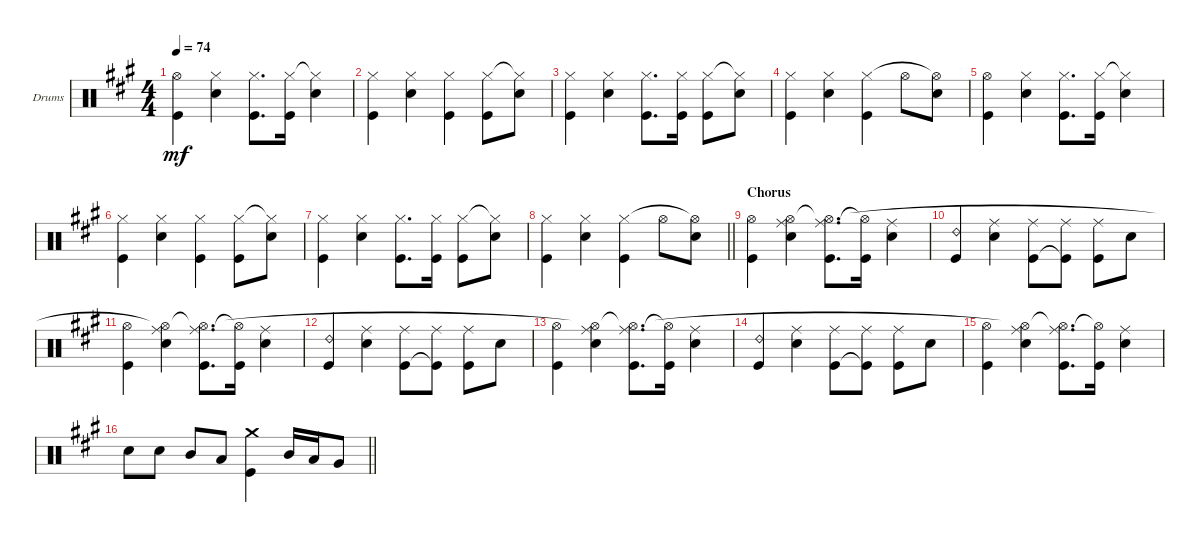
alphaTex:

\bracketExtendMode groupsimilarinstruments
\firstSystemTrackNameOrientation horizontal
\otherSystemsTrackNameOrientation horizontal
\track ("Drumkit" "Drums") {instrument percussion}
\staff {score}
\articulation defaults
\ts (4 4)
\tempo 74
\clef neutral
\scale
0.333333
\ks a
("Kick (hit)" "Hi-Hat (open)").4{dy mf} ("Snare (hit) 2" "Hi-Hat (closed)").4 ("Kick (hit)" "Hi-Hat (closed)").8{d} ("Kick (hit)" "Hi-Hat (closed)").16 ("Snare (hit) 2" "Hi-Hat (closed)"{t}).4 |
\scale
0.333333 ("Kick (hit)" "Hi-Hat (closed)").4 ("Snare (hit) 2" "Hi-Hat (closed)").4 ("Kick (hit)" "Hi-Hat (closed)").4 ("Kick (hit)" "Hi-Hat (closed)").8 ("Snare (hit) 2" "Hi-Hat (closed)"{t}).8 |
\scale
0.333333 ("Kick (hit)" "Hi-Hat (closed)").4 ("Snare (hit) 2" "Hi-Hat (closed)").4 ("Kick (hit)" "Hi-Hat (closed)").8{d} ("Kick (hit)" "Hi-Hat (closed)").16 ("Kick (hit)" "Hi-Hat (closed)").8 ("Snare (hit) 2" "Hi-Hat (closed)"{t}).8 |
\scale
0.333333 ("Kick (hit)" "Hi-Hat (closed)").4 ("Snare (hit) 2" "Hi-Hat (closed)").4 ("Kick (hit)" "Hi-Hat (closed)").4 "Hi-Hat (open)".8 ("Snare (hit) 2" "Hi-Hat (open)"{t}).8 |
\scale
0.333333 ("Kick (hit)" "Hi-Hat (open)").4 ("Snare (hit) 2" "Hi-Hat (closed)").4 ("Kick (hit)" "Hi-Hat (closed)").8{d} ("Kick (hit)" "Hi-Hat (closed)").16 ("Snare (hit) 2" "Hi-Hat (closed)"{t}).4 |
\scale
0.333333 ("Kick (hit)" "Hi-Hat (closed)").4 ("Snare (hit) 2" "Hi-Hat (closed)").4 ("Kick (hit)" "Hi-Hat (closed)").4 ("Kick (hit)" "Hi-Hat (closed)").8 ("Snare (hit) 2" "Hi-Hat (closed)"{t}).8 |
\scale
0.333333 ("Kick (hit)" "Hi-Hat (closed)").4 ("Snare (hit) 2" "Hi-Hat (closed)").4 ("Kick (hit)" "Hi-Hat (closed)").8{d} ("Kick (hit)" "Hi-Hat (closed)").16 ("Kick (hit)" "Hi-Hat (closed)").8 ("Snare (hit) 2" "Hi-Hat (closed)"{t}).8 |
\scale
0.333333
\barLineRight lightlight
("Kick (hit)" "Hi-Hat (closed)").4 ("Snare (hit) 2" "Hi-Hat (closed)").4 ("Kick (hit)" "Hi-Hat (closed)").4 "Hi-Hat (open)".8 ("Snare (hit) 2" "Hi-Hat (open)"{t}).8 |
\section ("" "Chorus")
\scale
0.333333 ("Kick (hit)" "Hi-Hat (open)").4 ("Snare (hit) 2" "Ride (middle)" "Hi-Hat (open)").4 ("Kick (hit)" "Ride (middle)" "Hi-Hat (open)"{t}).8{d} ("Kick (hit)" "Hi-Hat (open)"{t}).16 ("Snare (hit) 2" "Ride (middle)").4 |
\scale
0.333333 ("Kick (hit)" "Ride (bell) 2").4 ("Snare (hit) 2" "Ride (middle)").4 ("Kick (hit)" "Ride (middle)").8 ("Kick (hit)"{t} "Ride (middle)").8 ("Kick (hit)" "Ride (middle)").8 "Snare (hit) 2".8 |
\scale
0.333333 ("Kick (hit)" "Hi-Hat (open)").4 ("Snare (hit) 2" "Ride (middle)" "Hi-Hat (open)"{t}).4 ("Kick (hit)" "Ride (middle)" "Hi-Hat (open)"{t}).8{d} ("Kick (hit)" "Hi-Hat (open)"{t}).16 ("Snare (hit) 2" "Ride (middle)").4 |
\scale
0.333333 ("Kick (hit)" "Ride (bell) 2").4 ("Snare (hit) 2" "Ride (middle)").4 ("Kick (hit)" "Ride (middle)").8 ("Kick (hit)"{t} "Ride (middle)").8 ("Kick (hit)" "Ride (middle)").8 "Snare (hit) 2".8 |
\scale
0.333333 ("Kick (hit)" "Hi-Hat (open)").4 ("Snare (hit) 2" "Ride (middle)" "Hi-Hat (open)"{t}).4 ("Kick (hit)" "Ride (middle)" "Hi-Hat (open)"{t}).8{d} ("Kick (hit)" "Hi-Hat (open)"{t}).16 ("Snare (hit) 2" "Ride (middle)").4 |
\scale
0.333333 ("Kick (hit)" "Ride (bell) 2").4 ("Snare (hit) 2" "Ride (middle)").4 ("Kick (hit)" "Ride (middle)").8 ("Kick (hit)"{t} "Ride (middle)").8 ("Kick (hit)" "Ride (middle)").8 "Snare (hit) 2".8 |
\scale
0.333333 ("Kick (hit)" "Hi-Hat (open)").4 ("Snare (hit) 2" "Ride (middle)" "Hi-Hat (open)"{t}).4 ("Kick (hit)" "Ride (middle)" "Hi-Hat (open)"{t}).8{d} ("Kick (hit)" "Hi-Hat (open)"{t}).16 ("Snare (hit) 2" "Ride (middle)").4 |
\scale
0.333333
\barLineRight lightlight "Snare (hit) 2".8 "Snare (hit) 2".8 "Mid Tom (hit)".8 "Low Tom (hit)".8
("Kick (hit)" "Crash medium (hit)").4 "Mid Tom (hit)".16 "Low Tom (hit)".16 "Very Low Tom (hit)".8
